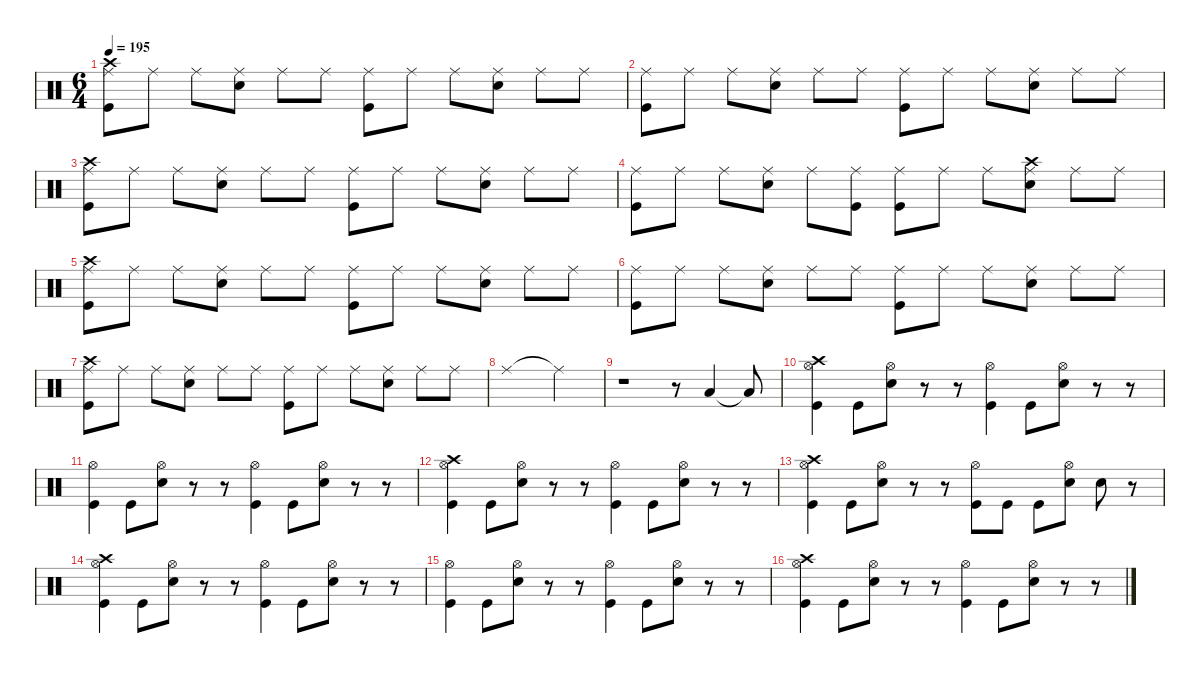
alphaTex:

\defaultSystemsLayout 4
\hideDynamics
\bracketExtendMode nobrackets
\singleTrackTrackNamePolicy hidden
\multiTrackTrackNamePolicy hidden
\firstSystemTrackNameMode fullname
\firstSystemTrackNameOrientation horizontal
\otherSystemsTrackNameOrientation horizontal
\track ("Percussion" "drm.") {instrument percussion}
\staff {score}
\articulation defaults
\ts (6 4)
\tempo 195
\clef neutral
\ks c
("Ride (middle)" "Crash high (hit)" "Kick (hit)").8{dy f beam Down} "Ride (middle)".8{beam Down} "Ride (middle)".8{beam Down} ("Ride (middle)" "Snare (hit) 2").8{beam Down} "Ride (middle)".8{beam Down} "Ride (middle)".8{beam Down} ("Ride (middle)" "Kick (hit)").8{beam Down} "Ride (middle)".8{beam Down} "Ride (middle)".8{beam Down} ("Ride (middle)" "Snare (hit) 2").8{beam Down} "Ride (middle)".8{beam Down} "Ride (middle)".8{beam Down} |
("Ride (middle)" "Kick (hit)").8{beam Down} "Ride (middle)".8{beam Down} "Ride (middle)".8{beam Down} ("Ride (middle)" "Snare (hit) 2").8{beam Down} "Ride (middle)".8{beam Down} "Ride (middle)".8{beam Down} ("Ride (middle)" "Kick (hit)").8{beam Down} "Ride (middle)".8{beam Down} "Ride (middle)".8{beam Down} ("Ride (middle)" "Snare (hit) 2").8{beam Down} "Ride (middle)".8{beam Down} "Ride (middle)".8{beam Down} |
("Ride (middle)" "Crash high (hit)" "Kick (hit)").8{beam Down} "Ride (middle)".8{beam Down} "Ride (middle)".8{beam Down} ("Ride (middle)" "Snare (hit) 2").8{beam Down} "Ride (middle)".8{beam Down} "Ride (middle)".8{beam Down} ("Ride (middle)" "Kick (hit)").8{beam Down} "Ride (middle)".8{beam Down} "Ride (middle)".8{beam Down} ("Ride (middle)" "Snare (hit) 2").8{beam Down} "Ride (middle)".8{beam Down} "Ride (middle)".8{beam Down} |
("Ride (middle)" "Kick (hit)").8{beam Down} "Ride (middle)".8{beam Down} "Ride (middle)".8{beam Down} ("Ride (middle)" "Snare (hit) 2").8{beam Down} "Ride (middle)".8{beam Down} ("Ride (middle)" "Kick (hit)").8{beam Down} ("Ride (middle)" "Kick (hit)").8{beam Down} "Ride (middle)".8{beam Down} "Ride (middle)".8{beam Down} ("Ride (middle)" "Crash high (hit)" "Snare (hit) 2").8{beam Down} "Ride (middle)".8{beam Down} "Ride (middle)".8{beam Down} |
("Ride (middle)" "Crash high (hit)" "Kick (hit)").8{beam Down} "Ride (middle)".8{beam Down} "Ride (middle)".8{beam Down} ("Ride (middle)" "Snare (hit) 2").8{beam Down} "Ride (middle)".8{beam Down} "Ride (middle)".8{beam Down} ("Ride (middle)" "Kick (hit)").8{beam Down} "Ride (middle)".8{beam Down} "Ride (middle)".8{beam Down} ("Ride (middle)" "Snare (hit) 2").8{beam Down} "Ride (middle)".8{beam Down} "Ride (middle)".8{beam Down} |
("Ride (middle)" "Kick (hit)").8{beam Down} "Ride (middle)".8{beam Down} "Ride (middle)".8{beam Down} ("Ride (middle)" "Snare (hit) 2").8{beam Down} "Ride (middle)".8{beam Down} "Ride (middle)".8{beam Down} ("Ride (middle)" "Kick (hit)").8{beam Down} "Ride (middle)".8{beam Down} "Ride (middle)".8{beam Down} ("Ride (middle)" "Snare (hit) 2").8{beam Down} "Ride (middle)".8{beam Down} "Ride (middle)".8{beam Down} |
("Ride (middle)" "Crash high (hit)" "Kick (hit)").8{beam Down} "Ride (middle)".8{beam Down} "Ride (middle)".8{beam Down} ("Ride (middle)" "Snare (hit) 2").8{beam Down} "Ride (middle)".8{beam Down} "Ride (middle)".8{beam Down} ("Ride (middle)" "Kick (hit)").8{beam Down} "Ride (middle)".8{beam Down} "Ride (middle)".8{beam Down} ("Ride (middle)" "Snare (hit) 2").8{beam Down} "Ride (middle)".8{beam Down} "Ride (middle)".8{beam Down} |
"Ride (middle)".1{beam Down} "Ride (middle)"{t}.2{beam Down} |
r.1{beam Down} r.8{beam Down} "Low Floor Tom (hit)".4{beam Up} "Low Floor Tom (hit)"{t}.8{beam Up} |
("Crash high (hit)" "Hi-Hat (open)" "Kick (hit)").4{beam Down} "Kick (hit)".8{beam Down} ("Hi-Hat (open)" "Snare (hit) 2").8{beam Down} r.8{beam Down} r.8{beam Down} ("Hi-Hat (open)" "Kick (hit)").4{beam Down} "Kick (hit)".8{beam Down} ("Hi-Hat (open)" "Snare (hit) 2").8{beam Down} r.8{beam Down} r.8{beam Down} |
("Hi-Hat (open)" "Kick (hit)").4{beam Down} "Kick (hit)".8{beam Down} ("Hi-Hat (open)" "Snare (hit) 2").8{beam Down} r.8{beam Down} r.8{beam Down} ("Hi-Hat (open)" "Kick (hit)").4{beam Down} "Kick (hit)".8{beam Down} ("Hi-Hat (open)" "Snare (hit) 2").8{beam Down} r.8{beam Down} r.8{beam Down} |
("Crash high (hit)" "Hi-Hat (open)" "Kick (hit)").4{beam Down} "Kick (hit)".8{beam Down} ("Hi-Hat (open)" "Snare (hit) 2").8{beam Down} r.8{beam Down} r.8{beam Down} ("Hi-Hat (open)" "Kick (hit)").4{beam Down} "Kick (hit)".8{beam Down} ("Hi-Hat (open)" "Snare (hit) 2").8{beam Down} r.8{beam Down} r.8{beam Down} |
("Crash high (hit)" "Hi-Hat (open)" "Kick (hit)").4{beam Down} "Kick (hit)".8{beam Down} ("Hi-Hat (open)" "Snare (hit) 2").8{beam Down} r.8{beam Down} r.8{beam Down} ("Hi-Hat (open)" "Kick (hit)").8{beam Down} "Kick (hit)".8{beam Down} "Kick (hit)".8{beam Down} ("Hi-Hat (open)" "Snare (hit) 2").8{beam Down} "Snare (hit) 2".8{beam Down} r.8{beam Down} |
("Crash high (hit)" "Hi-Hat (open)" "Kick (hit)").4{beam Down} "Kick (hit)".8{beam Down} ("Hi-Hat (open)" "Snare (hit) 2").8{beam Down} r.8{beam Down} r.8{beam Down} ("Hi-Hat (open)" "Kick (hit)").4{beam Down} "Kick (hit)".8{beam Down} ("Hi-Hat (open)" "Snare (hit) 2").8{beam Down} r.8{beam Down} r.8{beam Down} |
("Hi-Hat (open)" "Kick (hit)").4{beam Down} "Kick (hit)".8{beam Down} ("Hi-Hat (open)" "Snare (hit) 2").8{beam Down} r.8{beam Down} r.8{beam Down} ("Hi-Hat (open)" "Kick (hit)").4{beam Down} "Kick (hit)".8{beam Down} ("Hi-Hat (open)" "Snare (hit) 2").8{beam Down} r.8{beam Down} r.8{beam Down} |
("Crash high (hit)" "Hi-Hat (open)" "Kick (hit)").4{beam Down} "Kick (hit)".8{beam Down} ("Hi-Hat (open)" "Snare (hit) 2").8{beam Down} r.8{beam Down} r.8{beam Down} ("Hi-Hat (open)" "Kick (hit)").4{beam Down} "Kick (hit)".8{beam Down} ("Hi-Hat (open)" "Snare (hit) 2").8{beam Down} r.8{beam Down} r.8{beam Down}
